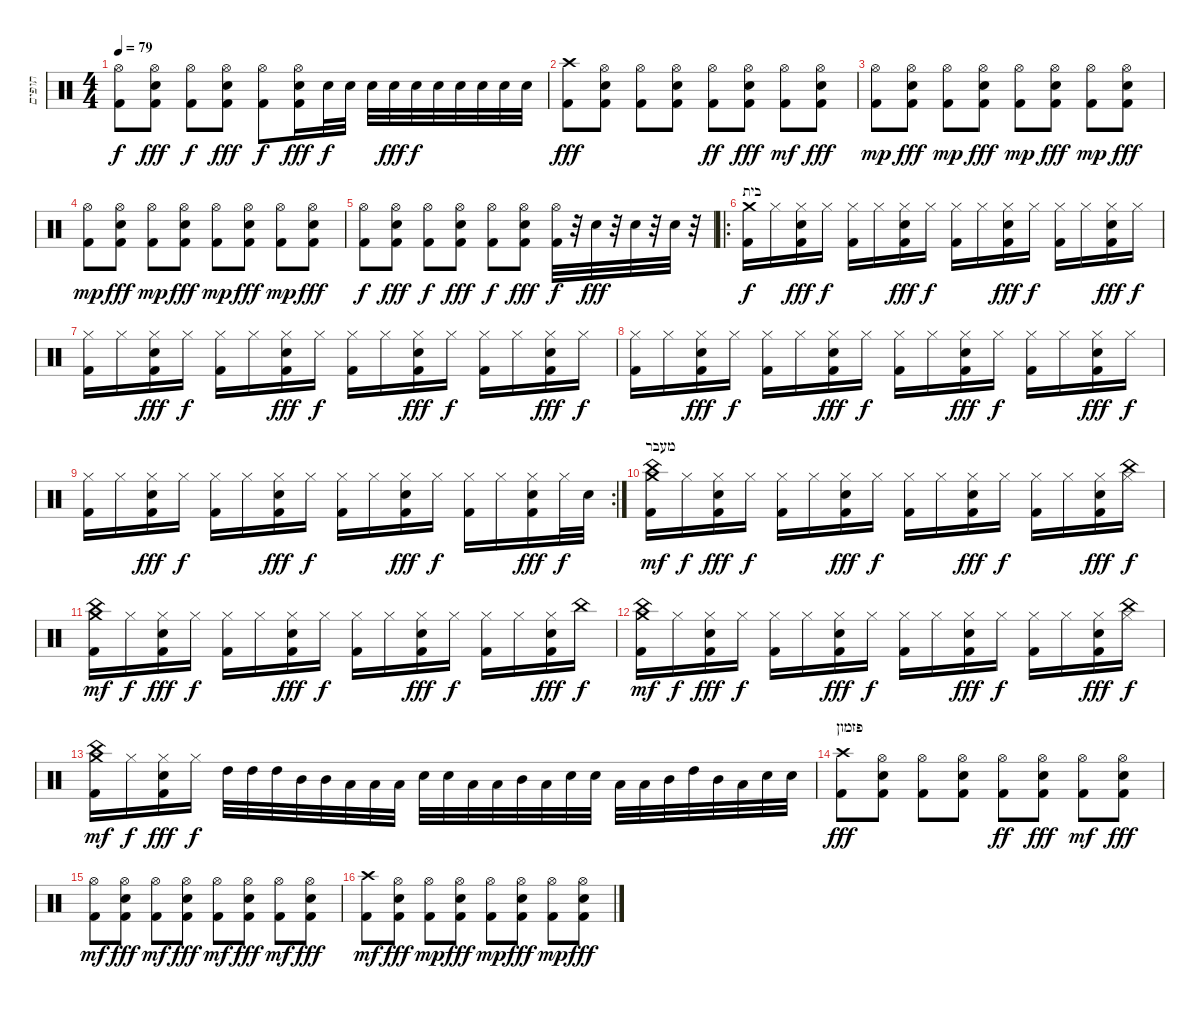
\track ("תופים" "תופים") {instrument percussion}
\staff {score}
\articulation defaults
\ts (4 4)
\tempo 79
\clef neutral
\ks c
("Hi-Hat (open)" "Kick (hit) 2").8{dy f} ("Hi-Hat (open)" "Snare (hit) 2" "Kick (hit) 2").8{dy fff} ("Hi-Hat (open)" "Kick (hit) 2").8{dy f} ("Hi-Hat (open)" "Snare (hit) 2" "Kick (hit) 2").8{dy fff} ("Hi-Hat (open)" "Kick (hit) 2").8{dy f} ("Hi-Hat (open)" "Snare (hit) 2" "Kick (hit) 2").16{dy fff} "Snare (hit) 2".32{dy f} "Snare (hit) 2".32 "Snare (hit) 2".32 "Snare (hit) 2".32{dy fff} "Snare (hit) 2".32{dy f} "Snare (hit) 2".32 "Snare (hit) 2".32 "Snare (hit) 2".32 "Snare (hit) 2".32 "Snare (hit) 2".32 |
("Crash high (hit)" "Kick (hit) 2").8{dy fff} ("Hi-Hat (open)" "Snare (hit) 2" "Kick (hit) 2").8 ("Hi-Hat (open)" "Kick (hit) 2").8 ("Hi-Hat (open)" "Snare (hit) 2" "Kick (hit) 2").8 ("Hi-Hat (open)" "Kick (hit) 2").8{dy ff} ("Hi-Hat (open)" "Snare (hit) 2" "Kick (hit) 2").8{dy fff} ("Hi-Hat (open)" "Kick (hit) 2").8{dy mf} ("Hi-Hat (open)" "Snare (hit) 2" "Kick (hit) 2").8{dy fff} |
("Hi-Hat (open)" "Kick (hit) 2").8{dy mp} ("Hi-Hat (open)" "Snare (hit) 2" "Kick (hit) 2").8{dy fff} ("Hi-Hat (open)" "Kick (hit) 2").8{dy mp} ("Hi-Hat (open)" "Snare (hit) 2" "Kick (hit) 2").8{dy fff} ("Hi-Hat (open)" "Kick (hit) 2").8{dy mp} ("Hi-Hat (open)" "Snare (hit) 2" "Kick (hit) 2").8{dy fff} ("Hi-Hat (open)" "Kick (hit) 2").8{dy mp} ("Hi-Hat (open)" "Snare (hit) 2" "Kick (hit) 2").8{dy fff} |
("Hi-Hat (open)" "Kick (hit) 2").8{dy mp} ("Hi-Hat (open)" "Snare (hit) 2" "Kick (hit) 2").8{dy fff} ("Hi-Hat (open)" "Kick (hit) 2").8{dy mp} ("Hi-Hat (open)" "Snare (hit) 2" "Kick (hit) 2").8{dy fff} ("Hi-Hat (open)" "Kick (hit) 2").8{dy mp} ("Hi-Hat (open)" "Snare (hit) 2" "Kick (hit) 2").8{dy fff} ("Hi-Hat (open)" "Kick (hit) 2").8{dy mp} ("Hi-Hat (open)" "Snare (hit) 2" "Kick (hit) 2").8{dy fff} |
("Hi-Hat (open)" "Kick (hit) 2").8{dy f} ("Hi-Hat (open)" "Snare (hit) 2" "Kick (hit) 2").8{dy fff} ("Hi-Hat (open)" "Kick (hit) 2").8{dy f} ("Hi-Hat (open)" "Snare (hit) 2" "Kick (hit) 2").8{dy fff} ("Hi-Hat (open)" "Kick (hit) 2").8{dy f} ("Hi-Hat (open)" "Snare (hit) 2" "Kick (hit) 2").8{dy fff} ("Hi-Hat (open)" "Kick (hit) 2").32{dy f} r.32 "Snare (hit) 2".32{dy fff} r.32 "Snare (hit) 2".32 r.32 "Snare (hit) 2".32 r.32 |
\ro
\section ("" "בית")
("Crash medium (hit)" "Kick (hit) 2").16{dy f} "Hi-Hat (closed)".16 ("Hi-Hat (closed)" "Snare (hit) 2" "Kick (hit) 2").16{dy fff} "Hi-Hat (closed)".16{dy f} ("Hi-Hat (closed)" "Kick (hit) 2").16 "Hi-Hat (closed)".16 ("Hi-Hat (closed)" "Snare (hit) 2" "Kick (hit) 2").16{dy fff} "Hi-Hat (closed)".16{dy f} ("Hi-Hat (closed)" "Kick (hit) 2").16 "Hi-Hat (closed)".16 ("Hi-Hat (closed)" "Snare (hit) 2" "Kick (hit) 2").16{dy fff} "Hi-Hat (closed)".16{dy f} ("Hi-Hat (closed)" "Kick (hit) 2").16 "Hi-Hat (closed)".16 ("Hi-Hat (closed)" "Snare (hit) 2" "Kick (hit) 2").16{dy fff} "Hi-Hat (closed)".16{dy f} |
("Hi-Hat (closed)" "Kick (hit) 2").16 "Hi-Hat (closed)".16 ("Hi-Hat (closed)" "Snare (hit) 2" "Kick (hit) 2").16{dy fff} "Hi-Hat (closed)".16{dy f} ("Hi-Hat (closed)" "Kick (hit) 2").16 "Hi-Hat (closed)".16 ("Hi-Hat (closed)" "Snare (hit) 2" "Kick (hit) 2").16{dy fff} "Hi-Hat (closed)".16{dy f} ("Hi-Hat (closed)" "Kick (hit) 2").16 "Hi-Hat (closed)".16 ("Hi-Hat (closed)" "Snare (hit) 2" "Kick (hit) 2").16{dy fff} "Hi-Hat (closed)".16{dy f} ("Hi-Hat (closed)" "Kick (hit) 2").16 "Hi-Hat (closed)".16 ("Hi-Hat (closed)" "Snare (hit) 2" "Kick (hit) 2").16{dy fff} "Hi-Hat (closed)".16{dy f} |
("Hi-Hat (closed)" "Kick (hit) 2").16 "Hi-Hat (closed)".16 ("Hi-Hat (closed)" "Snare (hit) 2" "Kick (hit) 2").16{dy fff} "Hi-Hat (closed)".16{dy f} ("Hi-Hat (closed)" "Kick (hit) 2").16 "Hi-Hat (closed)".16 ("Hi-Hat (closed)" "Snare (hit) 2" "Kick (hit) 2").16{dy fff} "Hi-Hat (closed)".16{dy f} ("Hi-Hat (closed)" "Kick (hit) 2").16 "Hi-Hat (closed)".16 ("Hi-Hat (closed)" "Snare (hit) 2" "Kick (hit) 2").16{dy fff} "Hi-Hat (closed)".16{dy f} ("Hi-Hat (closed)" "Kick (hit) 2").16 "Hi-Hat (closed)".16 ("Hi-Hat (closed)" "Snare (hit) 2" "Kick (hit) 2").16{dy fff} "Hi-Hat (closed)".16{dy f} |
\rc 2
("Hi-Hat (closed)" "Kick (hit) 2").16 "Hi-Hat (closed)".16 ("Hi-Hat (closed)" "Snare (hit) 2" "Kick (hit) 2").16{dy fff} "Hi-Hat (closed)".16{dy f} ("Hi-Hat (closed)" "Kick (hit) 2").16 "Hi-Hat (closed)".16 ("Hi-Hat (closed)" "Snare (hit) 2" "Kick (hit) 2").16{dy fff} "Hi-Hat (closed)".16{dy f} ("Hi-Hat (closed)" "Kick (hit) 2").16 "Hi-Hat (closed)".16 ("Hi-Hat (closed)" "Snare (hit) 2" "Kick (hit) 2").16{dy fff} "Hi-Hat (closed)".16{dy f} ("Hi-Hat (closed)" "Kick (hit) 2").16 "Hi-Hat (closed)".16 ("Hi-Hat (closed)" "Snare (hit) 2" "Kick (hit) 2").16{dy fff} "Hi-Hat (closed)".32{dy f} "Snare (hit) 2".32 |
\section ("" "מעבר")
("Crash medium (hit)" "China (hit)" "Kick (hit) 2").16{dy mf} "Hi-Hat (closed)".16{dy f} ("Hi-Hat (closed)" "Snare (hit) 2" "Kick (hit) 2").16{dy fff} "Hi-Hat (closed)".16{dy f} ("Hi-Hat (closed)" "Kick (hit) 2").16 "Hi-Hat (closed)".16 ("Hi-Hat (closed)" "Snare (hit) 2" "Kick (hit) 2").16{dy fff} "Hi-Hat (closed)".16{dy f} ("Hi-Hat (closed)" "Kick (hit) 2").16 "Hi-Hat (closed)".16 ("Hi-Hat (closed)" "Snare (hit) 2" "Kick (hit) 2").16{dy fff} "Hi-Hat (closed)".16{dy f} ("Hi-Hat (closed)" "Kick (hit) 2").16 "Hi-Hat (closed)".16 ("Hi-Hat (closed)" "Snare (hit) 2" "Kick (hit) 2").16{dy fff} ("Hi-Hat (closed)" "China (hit)").16{dy f} |
("Crash medium (hit)" "China (hit)" "Kick (hit) 2").16{dy mf} "Hi-Hat (closed)".16{dy f} ("Hi-Hat (closed)" "Snare (hit) 2" "Kick (hit) 2").16{dy fff} "Hi-Hat (closed)".16{dy f} ("Hi-Hat (closed)" "Kick (hit) 2").16 "Hi-Hat (closed)".16 ("Hi-Hat (closed)" "Snare (hit) 2" "Kick (hit) 2").16{dy fff} "Hi-Hat (closed)".16{dy f} ("Hi-Hat (closed)" "Kick (hit) 2").16 "Hi-Hat (closed)".16 ("Hi-Hat (closed)" "Snare (hit) 2" "Kick (hit) 2").16{dy fff} "Hi-Hat (closed)".16{dy f} ("Hi-Hat (closed)" "Kick (hit) 2").16 "Hi-Hat (closed)".16 ("Hi-Hat (closed)" "Snare (hit) 2" "Kick (hit) 2").16{dy fff} "China (hit)".16{dy f} |
("Crash medium (hit)" "China (hit)" "Kick (hit) 2").16{dy mf} "Hi-Hat (closed)".16{dy f} ("Hi-Hat (closed)" "Snare (hit) 2" "Kick (hit) 2").16{dy fff} "Hi-Hat (closed)".16{dy f} ("Hi-Hat (closed)" "Kick (hit) 2").16 "Hi-Hat (closed)".16 ("Hi-Hat (closed)" "Snare (hit) 2" "Kick (hit) 2").16{dy fff} "Hi-Hat (closed)".16{dy f} ("Hi-Hat (closed)" "Kick (hit) 2").16 "Hi-Hat (closed)".16 ("Hi-Hat (closed)" "Snare (hit) 2" "Kick (hit) 2").16{dy fff} "Hi-Hat (closed)".16{dy f} ("Hi-Hat (closed)" "Kick (hit) 2").16 "Hi-Hat (closed)".16 ("Hi-Hat (closed)" "Snare (hit) 2" "Kick (hit) 2").16{dy fff} ("Hi-Hat (closed)" "China (hit)").16{dy f} |
("Crash medium (hit)" "China (hit)" "Kick (hit) 2").16{dy mf} "Hi-Hat (closed)".16{dy f} ("Hi-Hat (closed)" "Snare (hit) 2" "Kick (hit) 2").16{dy fff} "Hi-Hat (closed)".16{dy f} "High Tom (hit)".32 "High Tom (hit)".32 "High Tom (hit)".32 "Mid Tom (hit)".32 "Mid Tom (hit)".32 "Low Tom (hit)".32 "Low Tom (hit)".32 "Low Tom (hit)".32 "Snare (hit) 2".32 "Snare (hit) 2".32 "Low Tom (hit)".32 "Low Tom (hit)".32 "Mid Tom (hit)".32 "Low Tom (hit)".32 "Snare (hit) 2".32 "Snare (hit) 2".32 "Low Tom (hit)".32 "Low Tom (hit)".32 "Mid Tom (hit)".32 "High Tom (hit)".32 "Mid Tom (hit)".32 "Low Tom (hit)".32 "Snare (hit) 2".32 "Snare (hit) 2".32 |
\section ("" "פזמון")
("Crash high (hit)" "Kick (hit) 2").8{dy fff} ("Hi-Hat (open)" "Snare (hit) 2" "Kick (hit) 2").8 ("Hi-Hat (open)" "Kick (hit) 2").8 ("Hi-Hat (open)" "Snare (hit) 2" "Kick (hit) 2").8 ("Hi-Hat (open)" "Kick (hit) 2").8{dy ff} ("Hi-Hat (open)" "Snare (hit) 2" "Kick (hit) 2").8{dy fff} ("Hi-Hat (open)" "Kick (hit) 2").8{dy mf} ("Hi-Hat (open)" "Snare (hit) 2" "Kick (hit) 2").8{dy fff} |
("Hi-Hat (open)" "Kick (hit) 2").8{dy mf} ("Hi-Hat (open)" "Snare (hit) 2" "Kick (hit) 2").8{dy fff} ("Hi-Hat (open)" "Kick (hit) 2").8{dy mf} ("Hi-Hat (open)" "Snare (hit) 2" "Kick (hit) 2").8{dy fff} ("Hi-Hat (open)" "Kick (hit) 2").8{dy mf} ("Hi-Hat (open)" "Snare (hit) 2" "Kick (hit) 2").8{dy fff} ("Hi-Hat (open)" "Kick (hit) 2").8{dy mf} ("Hi-Hat (open)" "Snare (hit) 2" "Kick (hit) 2").8{dy fff} |
("Crash high (hit)" "Kick (hit) 2").8{dy mf} ("Hi-Hat (open)" "Snare (hit) 2" "Kick (hit) 2").8{dy fff} ("Hi-Hat (open)" "Kick (hit) 2").8{dy mp} ("Hi-Hat (open)" "Snare (hit) 2" "Kick (hit) 2").8{dy fff} ("Hi-Hat (open)" "Kick (hit) 2").8{dy mp} ("Hi-Hat (open)" "Snare (hit) 2" "Kick (hit) 2").8{dy fff} ("Hi-Hat (open)" "Kick (hit) 2").8{dy mp} ("Hi-Hat (open)" "Snare (hit) 2" "Kick (hit) 2").8{dy fff}
